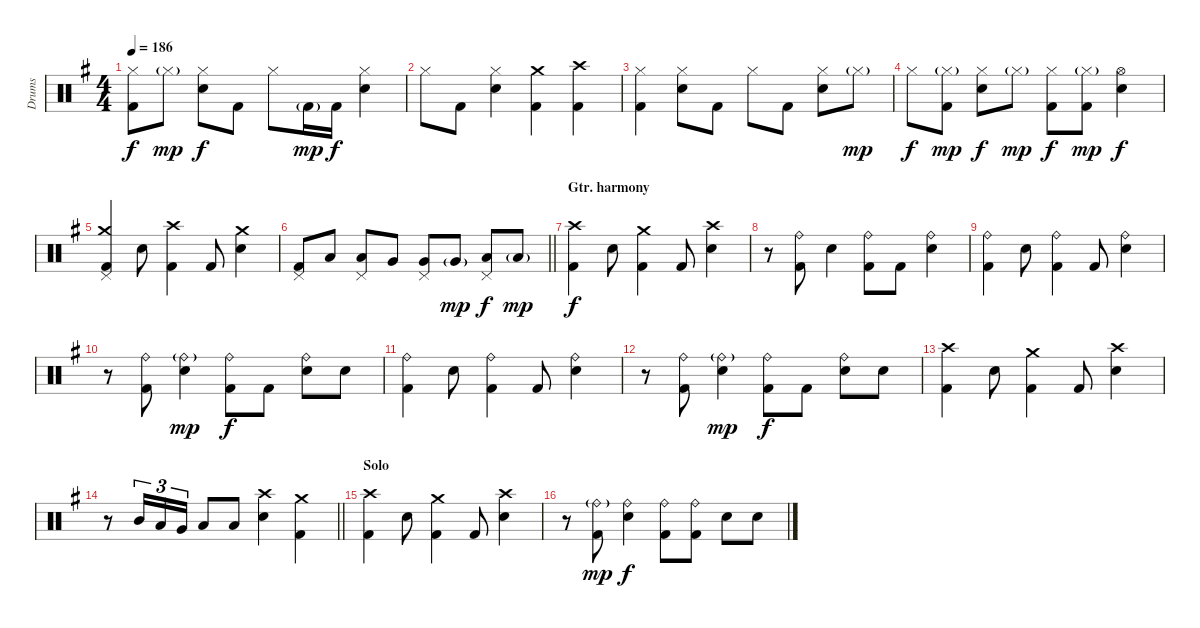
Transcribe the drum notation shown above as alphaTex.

\track ("Drums" "Drums") {instrument percussion}
\staff {score}
\articulation defaults
\ts (4 4)
\tempo 186
\clef neutral
\ks g
("Hi-Hat (closed)" "Kick (hit) 2").8{dy f} "Hi-Hat (closed)"{g}.8{dy mp} ("Hi-Hat (closed)" "Snare (hit) 2").8{dy f} "Kick (hit) 2".8 "Hi-Hat (closed)".8 "Kick (hit) 2"{g}.16{dy mp} "Kick (hit) 2".16{dy f} ("Hi-Hat (closed)" "Snare (hit) 2").4 |
"Hi-Hat (closed)".8 "Kick (hit) 2".8 ("Hi-Hat (closed)" "Snare (hit) 2").4 ("Crash medium (hit)" "Kick (hit) 2").4 ("Crash high (hit)" "Kick (hit) 2").4 |
("Hi-Hat (closed)" "Kick (hit) 2").4 ("Hi-Hat (closed)" "Snare (hit) 2").8 "Kick (hit) 2".8 "Hi-Hat (closed)".8 "Kick (hit) 2".8 ("Hi-Hat (closed)" "Snare (hit) 2").8 "Hi-Hat (closed)"{g}.8{dy mp} |
"Hi-Hat (closed)".8{dy f} ("Hi-Hat (closed)"{g} "Kick (hit) 2").8{dy mp} ("Hi-Hat (closed)" "Snare (hit) 2").8{dy f} "Hi-Hat (closed)"{g}.8{dy mp} ("Hi-Hat (closed)" "Kick (hit) 2").8{dy f} ("Hi-Hat (closed)"{g} "Kick (hit) 2").8{dy mp} ("Hi-Hat (open)" "Snare (hit) 2").4{dy f} |
("Crash medium (hit)" "Pedal Hi-Hat (hit)" "Kick (hit) 2").4 "Snare (hit) 2".8 ("Crash high (hit)" "Kick (hit) 2").4 "Kick (hit) 2".8 ("Crash medium (hit)" "Snare (hit) 2").4 |
\barLineRight lightlight
("Pedal Hi-Hat (hit)" "Kick (hit) 2").8 "Low Tom (hit)".8 ("Pedal Hi-Hat (hit)" "Low Tom (hit)").8 "Very Low Tom (hit)".8 ("Pedal Hi-Hat (hit)" "Very Low Tom (hit)").8 "Very Low Tom (hit)"{g}.8{dy mp} ("Pedal Hi-Hat (hit)" "Low Floor Tom (hit)").8{dy f} "Low Floor Tom (hit)"{g}.8{dy mp} |
\section ("" "Gtr. harmony")
("Crash high (hit)" "Kick (hit) 2").4{dy f} "Snare (hit) 2".8 ("Crash medium (hit)" "Kick (hit) 2").4 "Kick (hit) 2".8 ("Crash high (hit)" "Snare (hit) 2").4 |
r.8 ("Ride (bell)" "Kick (hit) 2").8 "Snare (hit) 2".4 ("Ride (bell)" "Kick (hit) 2").8 "Kick (hit) 2".8 ("Ride (bell)" "Snare (hit) 2").4 |
("Ride (bell)" "Kick (hit) 2").4 "Snare (hit) 2".8 ("Ride (bell)" "Kick (hit) 2").4 "Kick (hit) 2".8 ("Ride (bell)" "Snare (hit) 2").4 |
r.8 ("Ride (bell)" "Kick (hit) 2").8 ("Ride (bell)"{g} "Snare (hit) 2").4{dy mp} ("Ride (bell)" "Kick (hit) 2").8{dy f} "Kick (hit) 2".8 ("Ride (bell)" "Snare (hit) 2").8 "Snare (hit) 2".8 |
("Ride (bell)" "Kick (hit) 2").4 "Snare (hit) 2".8 ("Ride (bell)" "Kick (hit) 2").4 "Kick (hit) 2".8 ("Ride (bell)" "Snare (hit) 2").4 |
r.8 ("Ride (bell)" "Kick (hit) 2").8 ("Ride (bell)"{g} "Snare (hit) 2").4{dy mp} ("Ride (bell)" "Kick (hit) 2").8{dy f} "Kick (hit) 2".8 ("Ride (bell)" "Snare (hit) 2").8 "Snare (hit) 2".8 |
("Crash high (hit)" "Kick (hit) 2").4 "Snare (hit) 2".8 ("Crash medium (hit)" "Kick (hit) 2").4 "Kick (hit) 2".8 ("Crash high (hit)" "Snare (hit) 2").4 |
\barLineRight lightlight
r.8 "Mid Tom (hit)".16{tu (3 2)} "Low Tom (hit)".16{tu (3 2)} "Very Low Tom (hit)".16{tu (3 2)} "Low Floor Tom (hit)".8 "Low Floor Tom (hit)".8 ("Crash high (hit)" "Snare (hit) 2").4 ("Crash medium (hit)" "Kick (hit) 2").4 |
\section ("" "Solo")
("Crash high (hit)" "Kick (hit) 2").4 "Snare (hit) 2".8 ("Crash medium (hit)" "Kick (hit) 2").4 "Kick (hit) 2".8 ("Crash high (hit)" "Snare (hit) 2").4 |
r.8 ("Ride (bell)"{g} "Kick (hit) 2").8{dy mp} ("Ride (bell)" "Snare (hit) 2").4{dy f} ("Ride (bell)" "Kick (hit) 2").8 ("Ride (bell)" "Kick (hit) 2").8 "Snare (hit) 2".8 "Snare (hit) 2".8
